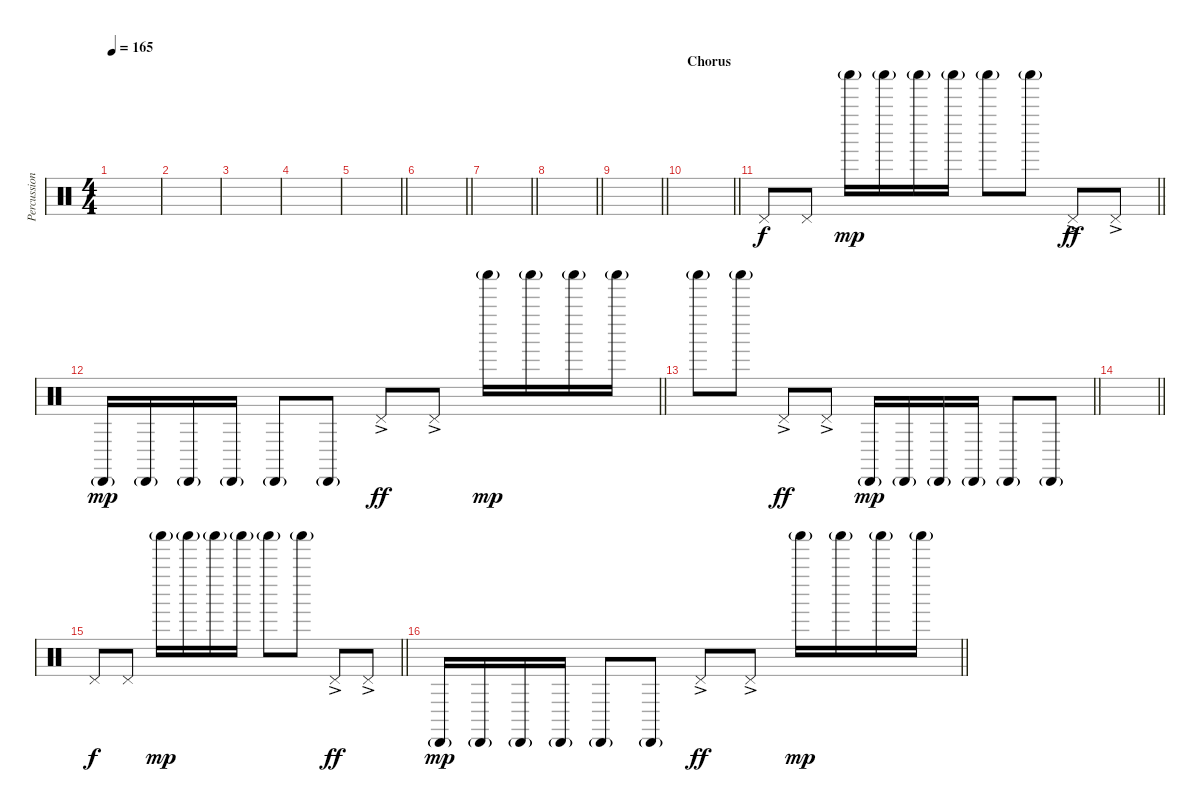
\track ("Percussion" "Percussion") {instrument percussion}
\staff {score}
\articulation defaults
\ts (4 4)
\tempo 165
\clef neutral
\ks c
|
|
|
|
\barLineRight lightlight
|
\barLineRight lightlight
|
\barLineRight lightlight
|
\barLineRight lightlight
|
\barLineRight lightlight
|
\section ("" "Chorus")
\barLineRight lightlight
|
\barLineRight lightlight "Pedal Hi-Hat (hit)".8{dy f} "Pedal Hi-Hat (hit)".8 "Shaker (hit)"{g}.16{dy mp} "Shaker (hit)"{g}.16 "Shaker (hit)"{g}.16 "Shaker (hit)"{g}.16 "Shaker (hit)"{g}.8 "Shaker (hit)"{g}.8 "Pedal Hi-Hat (hit)"{ac}.8{dy ff} "Pedal Hi-Hat (hit)"{ac}.8
|
\barLineRight lightlight "Cabasa (hit)"{g}.16{dy mp} "Cabasa (hit)"{g}.16 "Cabasa (hit)"{g}.16 "Cabasa (hit)"{g}.16 "Cabasa (hit)"{g}.8 "Cabasa (hit)"{g}.8 "Pedal Hi-Hat (hit)"{ac}.8{dy ff} "Pedal Hi-Hat (hit)"{ac}.8 "Shaker (hit)"{g}.16{dy mp} "Shaker (hit)"{g}.16 "Shaker (hit)"{g}.16 "Shaker (hit)"{g}.16
|
\barLineRight lightlight "Shaker (hit)"{g}.8 "Shaker (hit)"{g}.8 "Pedal Hi-Hat (hit)"{ac}.8{dy ff} "Pedal Hi-Hat (hit)"{ac}.8 "Cabasa (hit)"{g}.16{dy mp} "Cabasa (hit)"{g}.16 "Cabasa (hit)"{g}.16 "Cabasa (hit)"{g}.16 "Cabasa (hit)"{g}.8 "Cabasa (hit)"{g}.8
|
\barLineRight lightlight
|
\barLineRight lightlight "Pedal Hi-Hat (hit)".8{dy f} "Pedal Hi-Hat (hit)".8 "Shaker (hit)"{g}.16{dy mp} "Shaker (hit)"{g}.16 "Shaker (hit)"{g}.16 "Shaker (hit)"{g}.16 "Shaker (hit)"{g}.8 "Shaker (hit)"{g}.8 "Pedal Hi-Hat (hit)"{ac}.8{dy ff} "Pedal Hi-Hat (hit)"{ac}.8
|
\barLineRight lightlight "Cabasa (hit)"{g}.16{dy mp} "Cabasa (hit)"{g}.16 "Cabasa (hit)"{g}.16 "Cabasa (hit)"{g}.16 "Cabasa (hit)"{g}.8 "Cabasa (hit)"{g}.8 "Pedal Hi-Hat (hit)"{ac}.8{dy ff} "Pedal Hi-Hat (hit)"{ac}.8 "Shaker (hit)"{g}.16{dy mp} "Shaker (hit)"{g}.16 "Shaker (hit)"{g}.16 "Shaker (hit)"{g}.16
